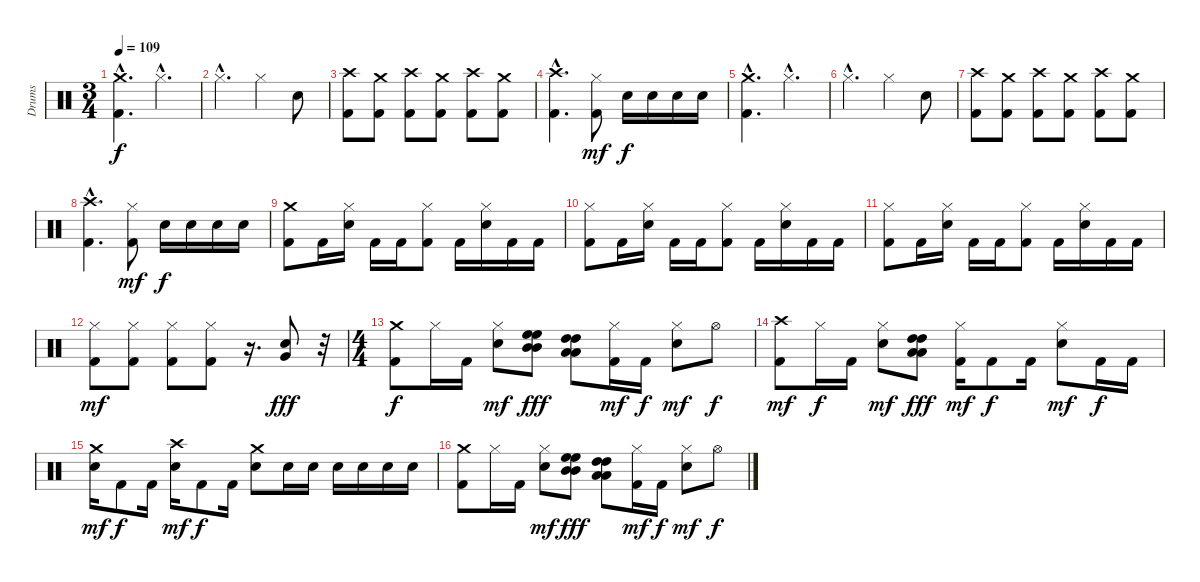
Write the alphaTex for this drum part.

\track ("Drums" "Drums") {instrument percussion}
\staff {score}
\articulation defaults
\ts (3 4)
\tempo 109
\clef neutral
\ks c
("Crash medium (hit)"{hac} "Kick (hit) 2"{hac}).4{d dy f} "Hi-Hat (closed)"{hac}.4{d} |
"Hi-Hat (closed)"{hac}.4{d} "Hi-Hat (closed)".4 "Snare (hit) 2".8 |
("Crash high (hit)" "Kick (hit) 2").8 ("Crash medium (hit)" "Kick (hit) 2").8 ("Crash high (hit)" "Kick (hit) 2").8 ("Crash medium (hit)" "Kick (hit) 2").8 ("Crash high (hit)" "Kick (hit) 2").8 ("Crash medium (hit)" "Kick (hit) 2").8 |
("Crash high (hit)"{hac} "Kick (hit) 2"{hac}).4{d} ("Hi-Hat (closed)" "Kick (hit) 2").8{dy mf} "Snare (hit) 2".16{dy f} "Snare (hit) 2".16 "Snare (hit) 2".16 "Snare (hit) 2".16 |
("Crash medium (hit)"{hac} "Kick (hit) 2"{hac}).4{d} "Hi-Hat (closed)"{hac}.4{d} |
"Hi-Hat (closed)"{hac}.4{d} "Hi-Hat (closed)".4 "Snare (hit) 2".8 |
("Crash high (hit)" "Kick (hit) 2").8 ("Crash medium (hit)" "Kick (hit) 2").8 ("Crash high (hit)" "Kick (hit) 2").8 ("Crash medium (hit)" "Kick (hit) 2").8 ("Crash high (hit)" "Kick (hit) 2").8 ("Crash medium (hit)" "Kick (hit) 2").8 |
("Crash high (hit)"{hac} "Kick (hit) 2"{hac}).4{d} ("Hi-Hat (closed)" "Kick (hit) 2").8{dy mf} "Snare (hit) 2".16{dy f} "Snare (hit) 2".16 "Snare (hit) 2".16 "Snare (hit) 2".16 |
("Crash medium (hit)" "Kick (hit) 2").8 "Kick (hit) 2".16 ("Hi-Hat (closed)" "Snare (hit) 2").16 "Kick (hit) 2".16 "Kick (hit) 2".16 ("Hi-Hat (closed)" "Kick (hit) 2").8 "Kick (hit) 2".16 ("Hi-Hat (closed)" "Snare (hit) 2").16 "Kick (hit) 2".16 "Kick (hit) 2".16 |
("Hi-Hat (closed)" "Kick (hit) 2").8 "Kick (hit) 2".16 ("Hi-Hat (closed)" "Snare (hit) 2").16 "Kick (hit) 2".16 "Kick (hit) 2".16 ("Hi-Hat (closed)" "Kick (hit) 2").8 "Kick (hit) 2".16 ("Hi-Hat (closed)" "Snare (hit) 2").16 "Kick (hit) 2".16 "Kick (hit) 2".16 |
("Hi-Hat (closed)" "Kick (hit) 2").8 "Kick (hit) 2".16 ("Hi-Hat (closed)" "Snare (hit) 2").16 "Kick (hit) 2".16 "Kick (hit) 2".16 ("Hi-Hat (closed)" "Kick (hit) 2").8 "Kick (hit) 2".16 ("Hi-Hat (closed)" "Snare (hit) 2").16 "Kick (hit) 2".16 "Kick (hit) 2".16 |
("Hi-Hat (closed)" "Kick (hit) 2").8{dy mf} ("Hi-Hat (closed)" "Kick (hit) 2").8 ("Hi-Hat (closed)" "Kick (hit) 2").8 ("Hi-Hat (closed)" "Kick (hit) 2").8 r.16{d} ("Snare (hit) 2" "Very Low Tom (hit)").8{dy fff} r.32 |
\ts (4 4)
("Crash medium (hit)" "Kick (hit) 2").8{dy f} "Hi-Hat (closed)".16 "Kick (hit) 2".16 ("Hi-Hat (closed)" "Snare (hit) 2").8{dy mf} ("High Floor Tom (hit)" "High Floor Tom (hit)" "Mid Tom (hit)" "Mid Tom (hit)").8{dy fff} ("High Tom (hit)" "High Tom (hit)" "Low Tom (hit)" "Low Tom (hit)").8 ("Hi-Hat (closed)" "Kick (hit) 2").16{dy mf} "Kick (hit) 2".16{dy f} ("Hi-Hat (closed)" "Snare (hit) 2").8{dy mf} "Hi-Hat (open)".8{dy f} |
("Crash high (hit)" "Kick (hit) 2").8{dy mf} "Hi-Hat (closed)".16{dy f} "Kick (hit) 2".16 ("Hi-Hat (closed)" "Snare (hit) 2").8{dy mf} ("High Tom (hit)" "High Tom (hit)" "Low Tom (hit)" "Low Tom (hit)").8{dy fff} ("Hi-Hat (closed)" "Kick (hit) 2").16{dy mf} "Kick (hit) 2".8{dy f} "Kick (hit) 2".16 ("Hi-Hat (closed)" "Snare (hit) 2").8{dy mf} "Kick (hit) 2".16{dy f} "Kick (hit) 2".16 |
("Crash medium (hit)" "Snare (hit) 2").16{dy mf} "Kick (hit) 2".8{dy f} "Kick (hit) 2".16 ("Crash high (hit)" "Snare (hit) 2").16{dy mf} "Kick (hit) 2".8{dy f} "Kick (hit) 2".16 ("Crash medium (hit)" "Snare (hit) 2").8 "Snare (hit) 2".16 "Snare (hit) 2".16 "Snare (hit) 2".16 "Snare (hit) 2".16 "Snare (hit) 2".16 "Snare (hit) 2".16 |
("Crash medium (hit)" "Kick (hit) 2").8 "Hi-Hat (closed)".16 "Kick (hit) 2".16 ("Hi-Hat (closed)" "Snare (hit) 2").8{dy mf} ("High Floor Tom (hit)" "High Floor Tom (hit)" "Mid Tom (hit)" "Mid Tom (hit)").8{dy fff} ("High Tom (hit)" "High Tom (hit)" "Low Tom (hit)" "Low Tom (hit)").8 ("Hi-Hat (closed)" "Kick (hit) 2").16{dy mf} "Kick (hit) 2".16{dy f} ("Hi-Hat (closed)" "Snare (hit) 2").8{dy mf} "Hi-Hat (open)".8{dy f}
